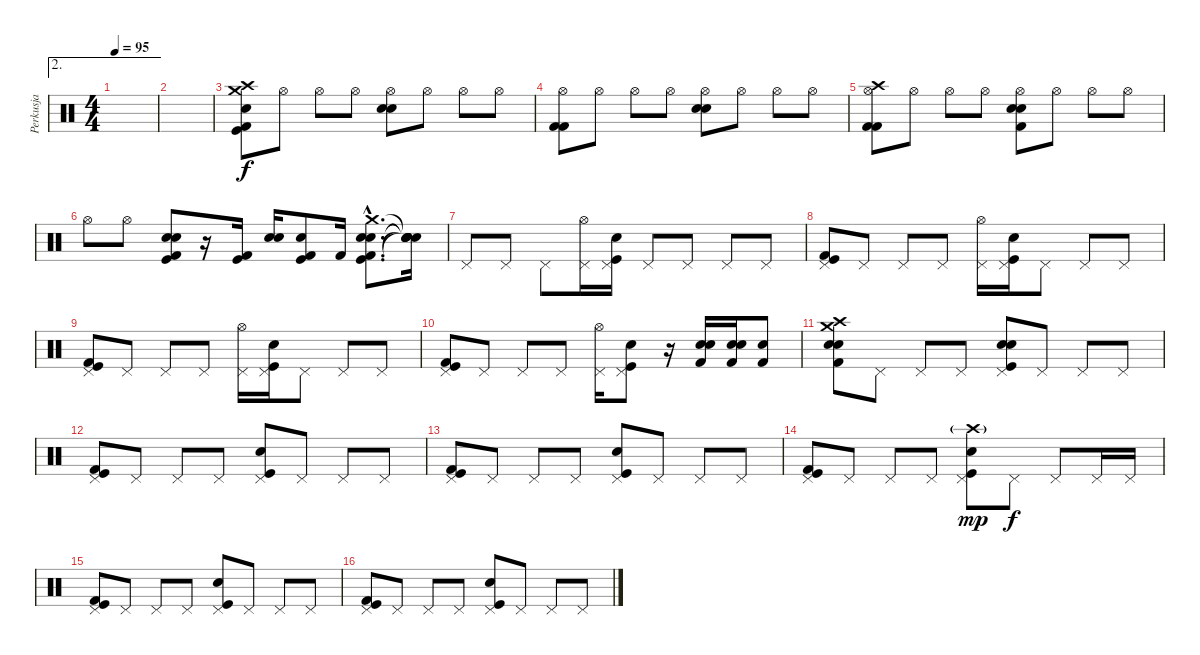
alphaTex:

\track ("Perkusja" "Perkusja") {instrument percussion}
\staff {score}
\articulation defaults
\ae 2
\ts (4 4)
\tempo 95
\clef neutral
\ks c
|
|
("Crash medium (hit)" "Crash high (hit)" "Electric Snare (hit)" "Kick (hit)" "Kick (hit) 2").8 "Hi-Hat (open)".8 "Hi-Hat (open)".8 "Hi-Hat (open)".8 ("Hi-Hat (open)" "Electric Snare (hit)" "Electric Snare (hit)").8 "Hi-Hat (open)".8 "Hi-Hat (open)".8 "Hi-Hat (open)".8 |
("Hi-Hat (open)" "Kick (hit) 2" "Kick (hit) 2").8 "Hi-Hat (open)".8 "Hi-Hat (open)".8 "Hi-Hat (open)".8 ("Hi-Hat (open)" "Electric Snare (hit)" "Electric Snare (hit)").8 "Hi-Hat (open)".8 "Hi-Hat (open)".8 "Hi-Hat (open)".8 |
("Hi-Hat (open)" "Crash high (hit)" "Kick (hit) 2" "Kick (hit) 2").8 "Hi-Hat (open)".8 "Hi-Hat (open)".8 "Hi-Hat (open)".8 ("Hi-Hat (open)" "Kick (hit) 2" "Electric Snare (hit)" "Electric Snare (hit)").8 "Hi-Hat (open)".8 "Hi-Hat (open)".8 "Hi-Hat (open)".8 |
"Hi-Hat (open)".8 "Hi-Hat (open)".8 ("Electric Snare (hit)" "Snare (hit) 2" "Kick (hit)" "Kick (hit) 2").8 r.16 ("Kick (hit)" "Kick (hit) 2").16 ("Electric Snare (hit)" "Electric Snare (hit)").16 ("Kick (hit)" "Kick (hit) 2" "Electric Snare (hit)").8 "Kick (hit) 2".16 ("Crash medium (hit)"{hac} "Snare (hit) 2"{hac} "Electric Snare (hit)"{hac} "Kick (hit)"{hac} "Kick (hit) 2"{hac}).8{d} ("Snare (hit)"{t} "Snare (hit)"{t} "Snare (hit)"{t} "Snare (hit)"{t} "Snare (hit)"{t}).16 |
"Pedal Hi-Hat (hit)".8 "Pedal Hi-Hat (hit)".8 "Pedal Hi-Hat (hit)".8 ("Pedal Hi-Hat (hit)" "Hi-Hat (open)").16 ("Pedal Hi-Hat (hit)" "Kick (hit)" "Electric Snare (hit)").16 "Pedal Hi-Hat (hit)".8 "Pedal Hi-Hat (hit)".8 "Pedal Hi-Hat (hit)".8 "Pedal Hi-Hat (hit)".8 |
("Pedal Hi-Hat (hit)" "Kick (hit)" "Kick (hit) 2").8 "Pedal Hi-Hat (hit)".8 "Pedal Hi-Hat (hit)".8 "Pedal Hi-Hat (hit)".8 ("Pedal Hi-Hat (hit)" "Hi-Hat (open)").16 ("Pedal Hi-Hat (hit)" "Kick (hit)" "Electric Snare (hit)").16 "Pedal Hi-Hat (hit)".8 "Pedal Hi-Hat (hit)".8 "Pedal Hi-Hat (hit)".8 |
("Pedal Hi-Hat (hit)" "Kick (hit)" "Kick (hit) 2").8 "Pedal Hi-Hat (hit)".8 "Pedal Hi-Hat (hit)".8 "Pedal Hi-Hat (hit)".8 ("Pedal Hi-Hat (hit)" "Hi-Hat (open)").16 ("Pedal Hi-Hat (hit)" "Kick (hit)" "Electric Snare (hit)").16 "Pedal Hi-Hat (hit)".8 "Pedal Hi-Hat (hit)".8 "Pedal Hi-Hat (hit)".8 |
("Pedal Hi-Hat (hit)" "Kick (hit)" "Kick (hit) 2").8 "Pedal Hi-Hat (hit)".8 "Pedal Hi-Hat (hit)".8 "Pedal Hi-Hat (hit)".8 ("Pedal Hi-Hat (hit)" "Hi-Hat (open)").16 ("Pedal Hi-Hat (hit)" "Kick (hit)" "Electric Snare (hit)").8 r.16 ("Electric Snare (hit)" "Kick (hit) 2" "Electric Snare (hit)").16 ("Electric Snare (hit)" "Kick (hit) 2" "Electric Snare (hit)").16 ("Snare (hit) 2" "Kick (hit) 2").8 |
("Crash medium (hit)" "Crash high (hit)" "Snare (hit) 2" "Kick (hit) 2" "Electric Snare (hit)").8 "Pedal Hi-Hat (hit)".8 "Pedal Hi-Hat (hit)".8 "Pedal Hi-Hat (hit)".8 ("Pedal Hi-Hat (hit)" "Snare (hit) 2" "Kick (hit)" "Electric Snare (hit)").8 "Pedal Hi-Hat (hit)".8 "Pedal Hi-Hat (hit)".8 "Pedal Hi-Hat (hit)".8 |
("Pedal Hi-Hat (hit)" "Kick (hit)" "Kick (hit) 2").8 "Pedal Hi-Hat (hit)".8 "Pedal Hi-Hat (hit)".8 "Pedal Hi-Hat (hit)".8 ("Pedal Hi-Hat (hit)" "Kick (hit)" "Electric Snare (hit)").8 "Pedal Hi-Hat (hit)".8 "Pedal Hi-Hat (hit)".8 "Pedal Hi-Hat (hit)".8 |
("Pedal Hi-Hat (hit)" "Kick (hit)" "Kick (hit) 2").8 "Pedal Hi-Hat (hit)".8 "Pedal Hi-Hat (hit)".8 "Pedal Hi-Hat (hit)".8 ("Pedal Hi-Hat (hit)" "Kick (hit)" "Electric Snare (hit)").8 "Pedal Hi-Hat (hit)".8 "Pedal Hi-Hat (hit)".8 "Pedal Hi-Hat (hit)".8 |
("Pedal Hi-Hat (hit)" "Kick (hit)" "Kick (hit) 2").8 "Pedal Hi-Hat (hit)".8 "Pedal Hi-Hat (hit)".8 "Pedal Hi-Hat (hit)".8 ("Pedal Hi-Hat (hit)" "Crash high (hit)"{g} "Kick (hit)" "Electric Snare (hit)").8{dy mp} "Pedal Hi-Hat (hit)".8{dy f} "Pedal Hi-Hat (hit)".8 "Pedal Hi-Hat (hit)".16 "Pedal Hi-Hat (hit)".16 |
("Pedal Hi-Hat (hit)" "Kick (hit)" "Kick (hit) 2").8 "Pedal Hi-Hat (hit)".8 "Pedal Hi-Hat (hit)".8 "Pedal Hi-Hat (hit)".8 ("Pedal Hi-Hat (hit)" "Kick (hit)" "Electric Snare (hit)").8 "Pedal Hi-Hat (hit)".8 "Pedal Hi-Hat (hit)".8 "Pedal Hi-Hat (hit)".8 |
("Pedal Hi-Hat (hit)" "Kick (hit)" "Kick (hit) 2").8 "Pedal Hi-Hat (hit)".8 "Pedal Hi-Hat (hit)".8 "Pedal Hi-Hat (hit)".8 ("Pedal Hi-Hat (hit)" "Kick (hit)" "Electric Snare (hit)").8 "Pedal Hi-Hat (hit)".8 "Pedal Hi-Hat (hit)".8 "Pedal Hi-Hat (hit)".8
